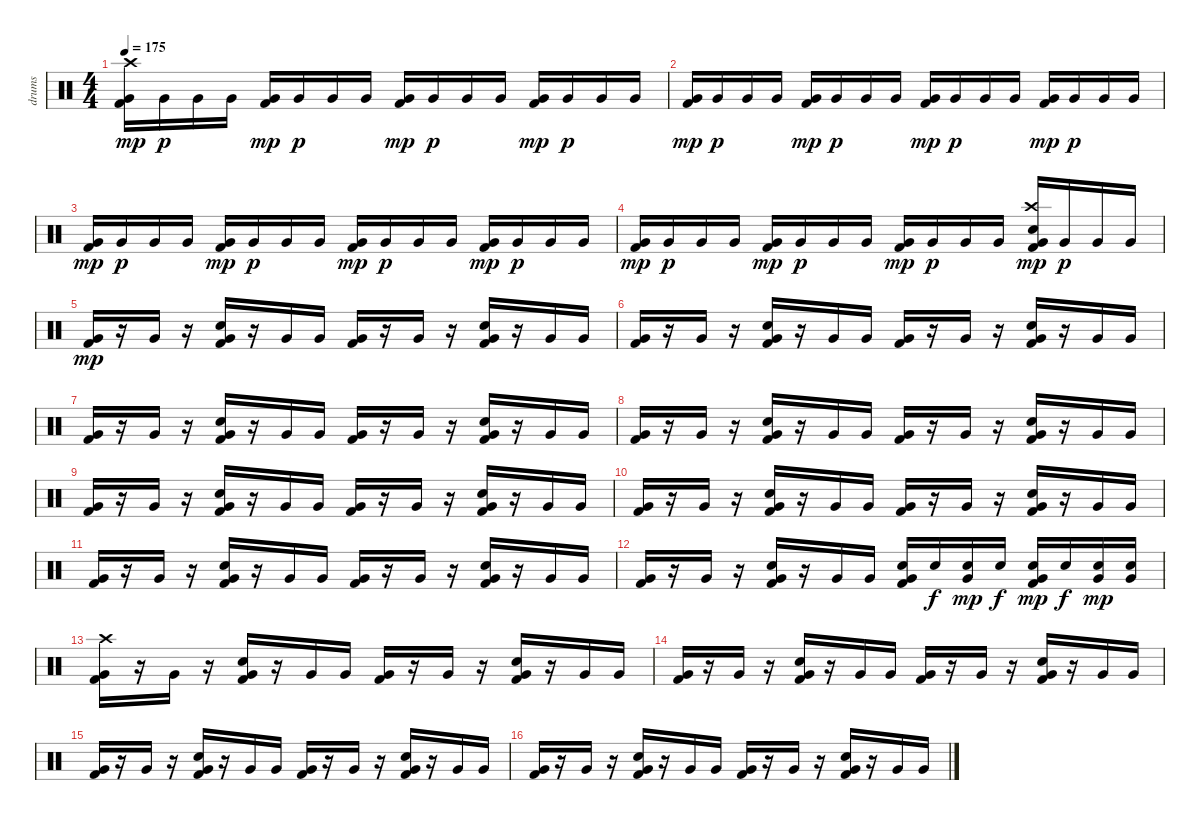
\track ("drums" "drums") {instrument percussion}
\staff {score}
\articulation defaults
\ts (4 4)
\tempo 175
\clef neutral
\ks c
("Very Low Tom (hit)" "Kick (hit) 2" "Crash high (hit)").16{dy mp} "Very Low Tom (hit)".16{dy p} "Very Low Tom (hit)".16 "Very Low Tom (hit)".16 ("Very Low Tom (hit)" "Kick (hit) 2").16{dy mp} "Very Low Tom (hit)".16{dy p} "Very Low Tom (hit)".16 "Very Low Tom (hit)".16 ("Very Low Tom (hit)" "Kick (hit) 2").16{dy mp} "Very Low Tom (hit)".16{dy p} "Very Low Tom (hit)".16 "Very Low Tom (hit)".16 ("Very Low Tom (hit)" "Kick (hit) 2").16{dy mp} "Very Low Tom (hit)".16{dy p} "Very Low Tom (hit)".16 "Very Low Tom (hit)".16 |
("Very Low Tom (hit)" "Kick (hit) 2").16{dy mp} "Very Low Tom (hit)".16{dy p} "Very Low Tom (hit)".16 "Very Low Tom (hit)".16 ("Very Low Tom (hit)" "Kick (hit) 2").16{dy mp} "Very Low Tom (hit)".16{dy p} "Very Low Tom (hit)".16 "Very Low Tom (hit)".16 ("Very Low Tom (hit)" "Kick (hit) 2").16{dy mp} "Very Low Tom (hit)".16{dy p} "Very Low Tom (hit)".16 "Very Low Tom (hit)".16 ("Very Low Tom (hit)" "Kick (hit) 2").16{dy mp} "Very Low Tom (hit)".16{dy p} "Very Low Tom (hit)".16 "Very Low Tom (hit)".16 |
("Very Low Tom (hit)" "Kick (hit) 2").16{dy mp} "Very Low Tom (hit)".16{dy p} "Very Low Tom (hit)".16 "Very Low Tom (hit)".16 ("Very Low Tom (hit)" "Kick (hit) 2").16{dy mp} "Very Low Tom (hit)".16{dy p} "Very Low Tom (hit)".16 "Very Low Tom (hit)".16 ("Very Low Tom (hit)" "Kick (hit) 2").16{dy mp} "Very Low Tom (hit)".16{dy p} "Very Low Tom (hit)".16 "Very Low Tom (hit)".16 ("Very Low Tom (hit)" "Kick (hit) 2").16{dy mp} "Very Low Tom (hit)".16{dy p} "Very Low Tom (hit)".16 "Very Low Tom (hit)".16 |
("Very Low Tom (hit)" "Kick (hit) 2").16{dy mp} "Very Low Tom (hit)".16{dy p} "Very Low Tom (hit)".16 "Very Low Tom (hit)".16 ("Very Low Tom (hit)" "Kick (hit) 2").16{dy mp} "Very Low Tom (hit)".16{dy p} "Very Low Tom (hit)".16 "Very Low Tom (hit)".16 ("Very Low Tom (hit)" "Kick (hit) 2").16{dy mp} "Very Low Tom (hit)".16{dy p} "Very Low Tom (hit)".16 "Very Low Tom (hit)".16 ("Crash high (hit)" "Electric Snare (hit)" "Very Low Tom (hit)" "Kick (hit) 2").16{dy mp} "Very Low Tom (hit)".16{dy p} "Very Low Tom (hit)".16 "Very Low Tom (hit)".16 |
("Very Low Tom (hit)" "Kick (hit) 2").16{dy mp} r.16 "Very Low Tom (hit)".16 r.16 ("Very Low Tom (hit)" "Electric Snare (hit)" "Kick (hit) 2").16 r.16 "Very Low Tom (hit)".16 "Very Low Tom (hit)".16 ("Very Low Tom (hit)" "Kick (hit) 2").16 r.16 "Very Low Tom (hit)".16 r.16 ("Very Low Tom (hit)" "Electric Snare (hit)" "Kick (hit) 2").16 r.16 "Very Low Tom (hit)".16 "Very Low Tom (hit)".16 |
("Kick (hit) 2" "Very Low Tom (hit)").16 r.16 "Very Low Tom (hit)".16 r.16 ("Electric Snare (hit)" "Kick (hit) 2" "Very Low Tom (hit)").16 r.16 "Very Low Tom (hit)".16 "Very Low Tom (hit)".16 ("Kick (hit) 2" "Very Low Tom (hit)").16 r.16 "Very Low Tom (hit)".16 r.16 ("Electric Snare (hit)" "Kick (hit) 2" "Very Low Tom (hit)").16 r.16 "Very Low Tom (hit)".16 "Very Low Tom (hit)".16 |
("Kick (hit) 2" "Very Low Tom (hit)").16 r.16 "Very Low Tom (hit)".16 r.16 ("Electric Snare (hit)" "Kick (hit) 2" "Very Low Tom (hit)").16 r.16 "Very Low Tom (hit)".16 "Very Low Tom (hit)".16 ("Kick (hit) 2" "Very Low Tom (hit)").16 r.16 "Very Low Tom (hit)".16 r.16 ("Electric Snare (hit)" "Kick (hit) 2" "Very Low Tom (hit)").16 r.16 "Very Low Tom (hit)".16 "Very Low Tom (hit)".16 |
("Kick (hit) 2" "Very Low Tom (hit)").16 r.16 "Very Low Tom (hit)".16 r.16 ("Electric Snare (hit)" "Kick (hit) 2" "Very Low Tom (hit)").16 r.16 "Very Low Tom (hit)".16 "Very Low Tom (hit)".16 ("Kick (hit) 2" "Very Low Tom (hit)").16 r.16 "Very Low Tom (hit)".16 r.16 ("Electric Snare (hit)" "Kick (hit) 2" "Very Low Tom (hit)").16 r.16 "Very Low Tom (hit)".16 "Very Low Tom (hit)".16 |
("Kick (hit) 2" "Very Low Tom (hit)").16 r.16 "Very Low Tom (hit)".16 r.16 ("Electric Snare (hit)" "Kick (hit) 2" "Very Low Tom (hit)").16 r.16 "Very Low Tom (hit)".16 "Very Low Tom (hit)".16 ("Kick (hit) 2" "Very Low Tom (hit)").16 r.16 "Very Low Tom (hit)".16 r.16 ("Electric Snare (hit)" "Kick (hit) 2" "Very Low Tom (hit)").16 r.16 "Very Low Tom (hit)".16 "Very Low Tom (hit)".16 |
("Kick (hit) 2" "Very Low Tom (hit)").16 r.16 "Very Low Tom (hit)".16 r.16 ("Electric Snare (hit)" "Kick (hit) 2" "Very Low Tom (hit)").16 r.16 "Very Low Tom (hit)".16 "Very Low Tom (hit)".16 ("Kick (hit) 2" "Very Low Tom (hit)").16 r.16 "Very Low Tom (hit)".16 r.16 ("Electric Snare (hit)" "Kick (hit) 2" "Very Low Tom (hit)").16 r.16 "Very Low Tom (hit)".16 "Very Low Tom (hit)".16 |
("Kick (hit) 2" "Very Low Tom (hit)").16 r.16 "Very Low Tom (hit)".16 r.16 ("Electric Snare (hit)" "Kick (hit) 2" "Very Low Tom (hit)").16 r.16 "Very Low Tom (hit)".16 "Very Low Tom (hit)".16 ("Kick (hit) 2" "Very Low Tom (hit)").16 r.16 "Very Low Tom (hit)".16 r.16 ("Electric Snare (hit)" "Kick (hit) 2" "Very Low Tom (hit)").16 r.16 "Very Low Tom (hit)".16 "Very Low Tom (hit)".16 |
("Kick (hit) 2" "Very Low Tom (hit)").16 r.16 "Very Low Tom (hit)".16 r.16 ("Electric Snare (hit)" "Kick (hit) 2" "Very Low Tom (hit)").16 r.16 "Very Low Tom (hit)".16 "Very Low Tom (hit)".16 ("Electric Snare (hit)" "Kick (hit) 2" "Very Low Tom (hit)").16 "Electric Snare (hit)".16{dy f} ("Electric Snare (hit)" "Very Low Tom (hit)").16{dy mp} "Electric Snare (hit)".16{dy f} ("Electric Snare (hit)" "Kick (hit) 2" "Very Low Tom (hit)").16{dy mp} "Electric Snare (hit)".16{dy f} ("Electric Snare (hit)" "Very Low Tom (hit)").16{dy mp} ("Electric Snare (hit)" "Very Low Tom (hit)").16 |
("Crash high (hit)" "Kick (hit) 2" "Very Low Tom (hit)").16 r.16 "Very Low Tom (hit)".16 r.16 ("Electric Snare (hit)" "Kick (hit) 2" "Very Low Tom (hit)").16 r.16 "Very Low Tom (hit)".16 "Very Low Tom (hit)".16 ("Kick (hit) 2" "Very Low Tom (hit)").16 r.16 "Very Low Tom (hit)".16 r.16 ("Electric Snare (hit)" "Kick (hit) 2" "Very Low Tom (hit)").16 r.16 "Very Low Tom (hit)".16 "Very Low Tom (hit)".16 |
("Kick (hit) 2" "Very Low Tom (hit)").16 r.16 "Very Low Tom (hit)".16 r.16 ("Electric Snare (hit)" "Kick (hit) 2" "Very Low Tom (hit)").16 r.16 "Very Low Tom (hit)".16 "Very Low Tom (hit)".16 ("Kick (hit) 2" "Very Low Tom (hit)").16 r.16 "Very Low Tom (hit)".16 r.16 ("Electric Snare (hit)" "Kick (hit) 2" "Very Low Tom (hit)").16 r.16 "Very Low Tom (hit)".16 "Very Low Tom (hit)".16 |
("Kick (hit) 2" "Very Low Tom (hit)").16 r.16 "Very Low Tom (hit)".16 r.16 ("Electric Snare (hit)" "Kick (hit) 2" "Very Low Tom (hit)").16 r.16 "Very Low Tom (hit)".16 "Very Low Tom (hit)".16 ("Kick (hit) 2" "Very Low Tom (hit)").16 r.16 "Very Low Tom (hit)".16 r.16 ("Electric Snare (hit)" "Kick (hit) 2" "Very Low Tom (hit)").16 r.16 "Very Low Tom (hit)".16 "Very Low Tom (hit)".16 |
("Kick (hit) 2" "Very Low Tom (hit)").16 r.16 "Very Low Tom (hit)".16 r.16 ("Electric Snare (hit)" "Kick (hit) 2" "Very Low Tom (hit)").16 r.16 "Very Low Tom (hit)".16 "Very Low Tom (hit)".16 ("Kick (hit) 2" "Very Low Tom (hit)").16 r.16 "Very Low Tom (hit)".16 r.16 ("Electric Snare (hit)" "Kick (hit) 2" "Very Low Tom (hit)").16 r.16 "Very Low Tom (hit)".16 "Very Low Tom (hit)".16
